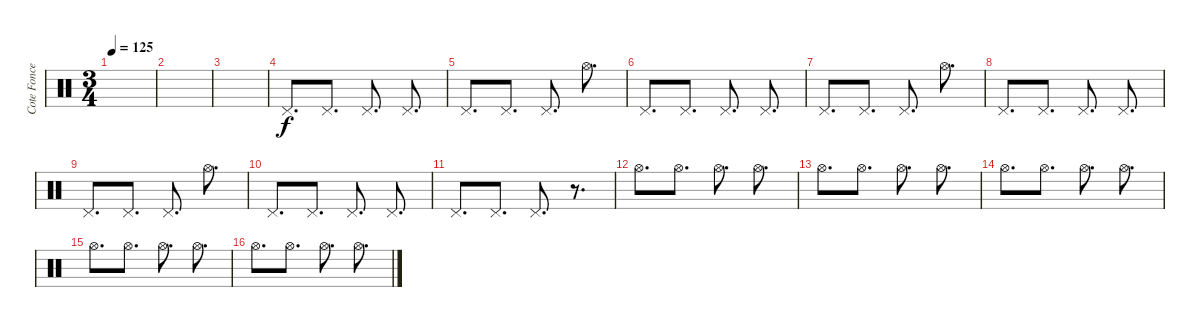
\track ("Cote Foncea" "Cote Fonce") {instrument percussion}
\staff {score}
\articulation defaults
\ts (3 4)
\tempo 125
\clef neutral
\ks c
|
|
|
"Pedal Hi-Hat (hit)".8{d} "Pedal Hi-Hat (hit)".8{d} "Pedal Hi-Hat (hit)".8{d} "Pedal Hi-Hat (hit)".8{d} |
"Pedal Hi-Hat (hit)".8{d} "Pedal Hi-Hat (hit)".8{d} "Pedal Hi-Hat (hit)".8{d} "Hi-Hat (open)".8{d} |
"Pedal Hi-Hat (hit)".8{d} "Pedal Hi-Hat (hit)".8{d} "Pedal Hi-Hat (hit)".8{d} "Pedal Hi-Hat (hit)".8{d} |
"Pedal Hi-Hat (hit)".8{d} "Pedal Hi-Hat (hit)".8{d} "Pedal Hi-Hat (hit)".8{d} "Hi-Hat (open)".8{d} |
"Pedal Hi-Hat (hit)".8{d} "Pedal Hi-Hat (hit)".8{d} "Pedal Hi-Hat (hit)".8{d} "Pedal Hi-Hat (hit)".8{d} |
"Pedal Hi-Hat (hit)".8{d} "Pedal Hi-Hat (hit)".8{d} "Pedal Hi-Hat (hit)".8{d} "Hi-Hat (open)".8{d} |
"Pedal Hi-Hat (hit)".8{d} "Pedal Hi-Hat (hit)".8{d} "Pedal Hi-Hat (hit)".8{d} "Pedal Hi-Hat (hit)".8{d} |
"Pedal Hi-Hat (hit)".8{d} "Pedal Hi-Hat (hit)".8{d} "Pedal Hi-Hat (hit)".8{d} r.8{d} |
"Hi-Hat (open)".8{d volume 10} "Hi-Hat (open)".8{d} "Hi-Hat (open)".8{d} "Hi-Hat (open)".8{d} |
"Hi-Hat (open)".8{d} "Hi-Hat (open)".8{d} "Hi-Hat (open)".8{d} "Hi-Hat (open)".8{d} |
"Hi-Hat (open)".8{d} "Hi-Hat (open)".8{d} "Hi-Hat (open)".8{d} "Hi-Hat (open)".8{d} |
"Hi-Hat (open)".8{d} "Hi-Hat (open)".8{d} "Hi-Hat (open)".8{d} "Hi-Hat (open)".8{d} |
"Hi-Hat (open)".8{d} "Hi-Hat (open)".8{d} "Hi-Hat (open)".8{d} "Hi-Hat (open)".8{d}
